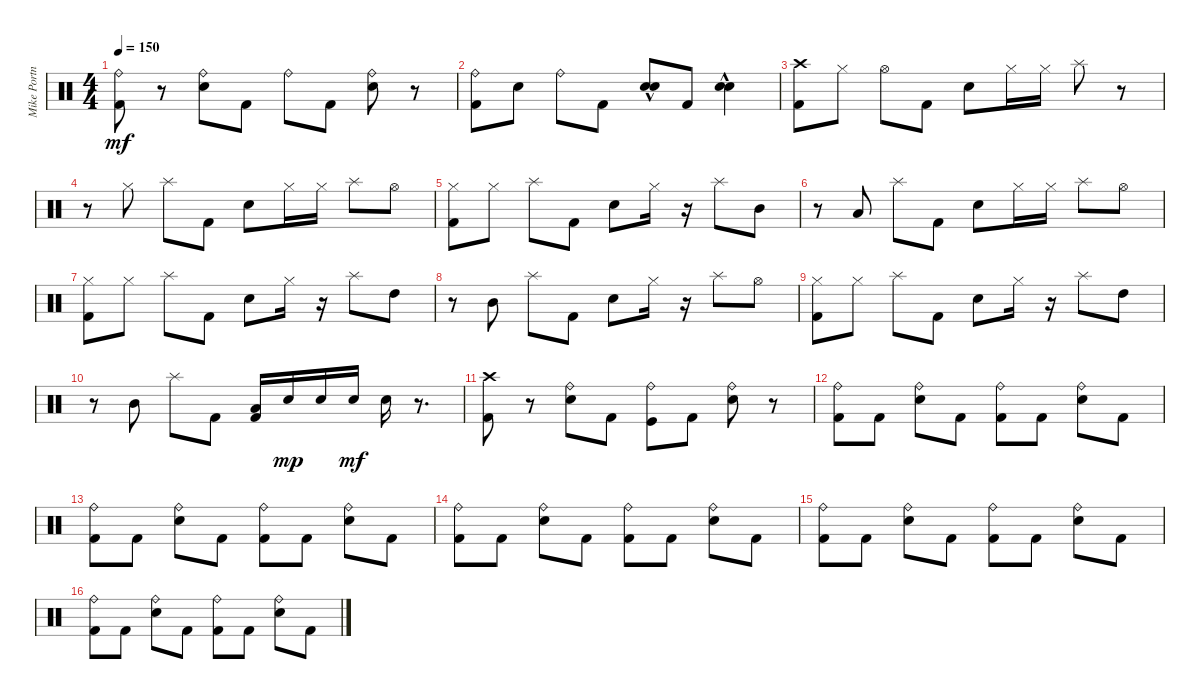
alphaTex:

\track ("Mike Portnoy: Drums" "Mike Portn") {instrument percussion}
\staff {score}
\articulation defaults
\ts (4 4)
\tempo 150
\clef neutral
\ks c
("Kick (hit) 2" "Ride (bell)").8{dy mf} r.8 ("Electric Snare (hit)" "Ride (bell)").8 "Kick (hit) 2".8 "Ride (bell)".8 "Kick (hit) 2".8 ("Electric Snare (hit)" "Ride (bell)").8 r.8 |
("Kick (hit) 2" "Ride (bell)").8 "Electric Snare (hit)".8 "Ride (bell)".8 "Kick (hit) 2".8 ("Electric Snare (hit)" "Electric Snare (hit)"{hac}).8 "Kick (hit) 2".8 ("Electric Snare (hit)" "Electric Snare (hit)"{hac}).4 |
("Kick (hit) 2" "Crash high (hit)").8 "Hi-Hat (closed)".8 "Hi-Hat (open)".8 "Kick (hit) 2".8 "Electric Snare (hit)".8 "Hi-Hat (closed)".16 "Hi-Hat (closed)".16 "Splash (hit)".8 r.8 |
r.8 "Hi-Hat (closed)".8 "Splash (hit)".8 "Kick (hit) 2".8 "Electric Snare (hit)".8 "Hi-Hat (closed)".16 "Hi-Hat (closed)".16 "Splash (hit)".8 "Hi-Hat (open)".8 |
("Kick (hit) 2" "Hi-Hat (closed)").8 "Hi-Hat (closed)".8 "Splash (hit)".8 "Kick (hit) 2".8 "Electric Snare (hit)".8 "Hi-Hat (closed)".16 r.16 "Splash (hit)".8 "Mid Tom (hit)".8 |
r.8 "Low Tom (hit)".8 "Splash (hit)".8 "Kick (hit) 2".8 "Electric Snare (hit)".8 "Hi-Hat (closed)".16 "Hi-Hat (closed)".16 "Splash (hit)".8 "Hi-Hat (open)".8 |
("Kick (hit) 2" "Hi-Hat (closed)").8 "Hi-Hat (closed)".8 "Splash (hit)".8 "Kick (hit) 2".8 "Electric Snare (hit)".8 "Hi-Hat (closed)".16 r.16 "Splash (hit)".8 "High Tom (hit)".8 |
r.8 "Mid Tom (hit)".8 "Splash (hit)".8 "Kick (hit) 2".8 "Electric Snare (hit)".8 "Hi-Hat (closed)".16 r.16 "Splash (hit)".8 "Hi-Hat (open)".8 |
("Kick (hit) 2" "Hi-Hat (closed)").8 "Hi-Hat (closed)".8 "Splash (hit)".8 "Kick (hit) 2".8 "Electric Snare (hit)".8 "Hi-Hat (closed)".16 r.16 "Splash (hit)".8 "High Tom (hit)".8 |
r.8 "Mid Tom (hit)".8 "Splash (hit)".8 "Kick (hit) 2".8 ("Kick (hit) 2" "Low Tom (hit)").16 "Electric Snare (hit)".16{dy mp} "Electric Snare (hit)".16 "Electric Snare (hit)".16{dy mf} "Electric Snare (hit)".16 r.8{d} |
("Kick (hit) 2" "Crash high (hit)").8 r.8 ("Electric Snare (hit)" "Ride (bell)").8 "Kick (hit) 2".8 ("Kick (hit)" "Ride (bell)").8 "Kick (hit) 2".8 ("Electric Snare (hit)" "Ride (bell)").8 r.8 |
("Kick (hit) 2" "Ride (bell)").8 "Kick (hit) 2".8 ("Electric Snare (hit)" "Ride (bell)").8 "Kick (hit) 2".8 ("Kick (hit) 2" "Ride (bell)").8 "Kick (hit) 2".8 ("Electric Snare (hit)" "Ride (bell)").8 "Kick (hit) 2".8 |
("Kick (hit) 2" "Ride (bell)").8 "Kick (hit) 2".8 ("Electric Snare (hit)" "Ride (bell)").8 "Kick (hit) 2".8 ("Kick (hit) 2" "Ride (bell)").8 "Kick (hit) 2".8 ("Electric Snare (hit)" "Ride (bell)").8 "Kick (hit) 2".8 |
("Kick (hit) 2" "Ride (bell)").8 "Kick (hit) 2".8 ("Electric Snare (hit)" "Ride (bell)").8 "Kick (hit) 2".8 ("Kick (hit) 2" "Ride (bell)").8 "Kick (hit) 2".8 ("Electric Snare (hit)" "Ride (bell)").8 "Kick (hit) 2".8 |
("Kick (hit) 2" "Ride (bell)").8 "Kick (hit) 2".8 ("Electric Snare (hit)" "Ride (bell)").8 "Kick (hit) 2".8 ("Kick (hit) 2" "Ride (bell)").8 "Kick (hit) 2".8 ("Electric Snare (hit)" "Ride (bell)").8 "Kick (hit) 2".8 |
("Kick (hit) 2" "Ride (bell)").8 "Kick (hit) 2".8 ("Electric Snare (hit)" "Ride (bell)").8 "Kick (hit) 2".8 ("Kick (hit) 2" "Ride (bell)").8 "Kick (hit) 2".8 ("Electric Snare (hit)" "Ride (bell)").8 "Kick (hit) 2".8
